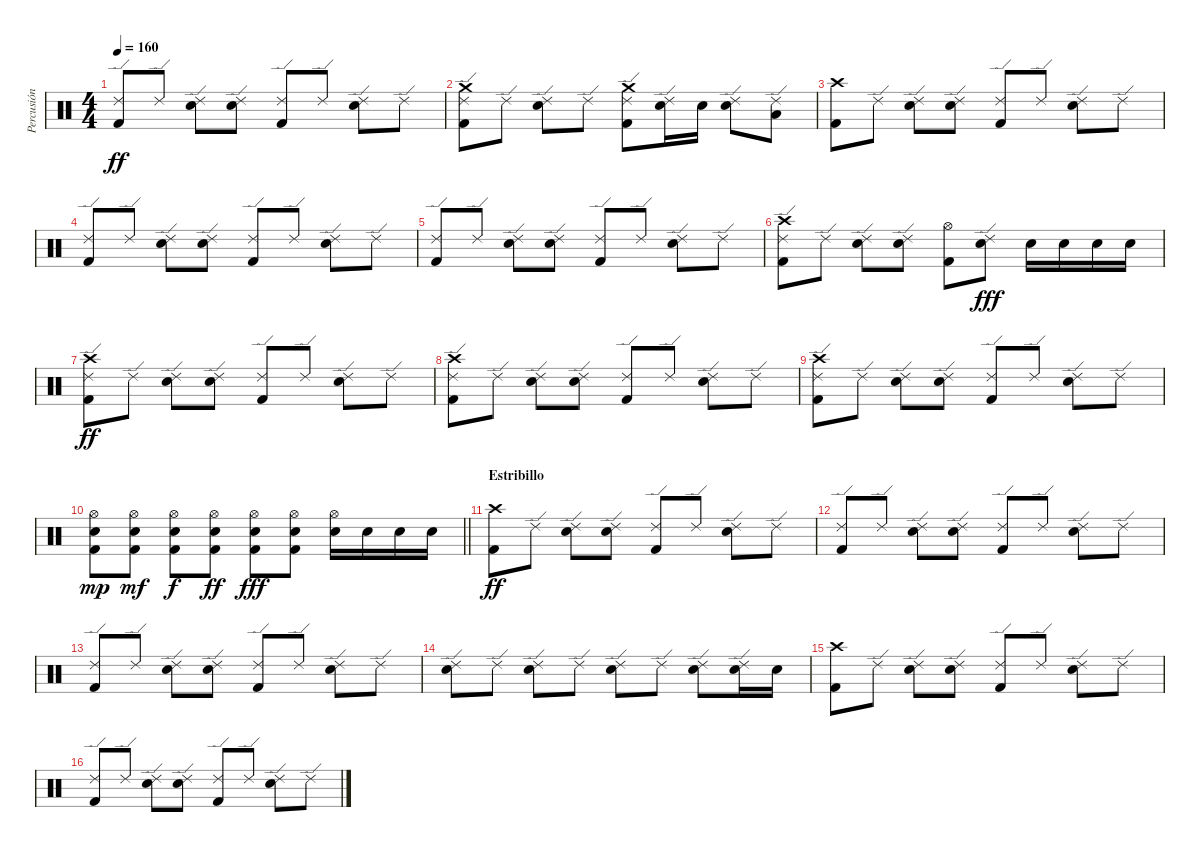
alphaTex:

\track ("Percusión" "Percusión") {instrument percussion}
\staff {score}
\articulation defaults
\ts (4 4)
\tempo 160
\clef neutral
\ks c
("Ride (edge) 2" "Kick (hit) 2").8{dy ff} "Ride (edge) 2".8 ("Ride (edge) 2" "Electric Snare (hit)").8 ("Ride (edge) 2" "Electric Snare (hit)").8 ("Ride (edge) 2" "Kick (hit) 2").8 "Ride (edge) 2".8 ("Ride (edge) 2" "Electric Snare (hit)").8 "Ride (edge) 2".8 |
("Ride (edge) 2" "Kick (hit) 2" "Crash medium (hit)").8 "Ride (edge) 2".8 ("Ride (edge) 2" "Electric Snare (hit)").8 "Ride (edge) 2".8 ("Ride (edge) 2" "Kick (hit) 2" "Crash medium (hit)").8 ("Ride (edge) 2" "Electric Snare (hit)").16 "Electric Snare (hit)".16 ("Ride (edge) 2" "Electric Snare (hit)").8 ("Ride (edge) 2" "Low Tom (hit)").8 |
("Crash high (hit)" "Kick (hit) 2").8 "Ride (edge) 2".8 ("Ride (edge) 2" "Electric Snare (hit)").8 ("Ride (edge) 2" "Electric Snare (hit)").8 ("Ride (edge) 2" "Kick (hit) 2").8 "Ride (edge) 2".8 ("Ride (edge) 2" "Electric Snare (hit)").8 "Ride (edge) 2".8 |
("Ride (edge) 2" "Kick (hit) 2").8 "Ride (edge) 2".8 ("Ride (edge) 2" "Electric Snare (hit)").8 ("Ride (edge) 2" "Electric Snare (hit)").8 ("Ride (edge) 2" "Kick (hit) 2").8 "Ride (edge) 2".8 ("Ride (edge) 2" "Electric Snare (hit)").8 "Ride (edge) 2".8 |
("Ride (edge) 2" "Kick (hit) 2").8 "Ride (edge) 2".8 ("Ride (edge) 2" "Electric Snare (hit)").8 ("Ride (edge) 2" "Electric Snare (hit)").8 ("Ride (edge) 2" "Kick (hit) 2").8 "Ride (edge) 2".8 ("Ride (edge) 2" "Electric Snare (hit)").8 "Ride (edge) 2".8 |
("Ride (edge) 2" "Kick (hit) 2" "Crash high (hit)").8 "Ride (edge) 2".8 ("Ride (edge) 2" "Electric Snare (hit)").8 ("Ride (edge) 2" "Electric Snare (hit)").8 ("Hi-Hat (open)" "Kick (hit) 2").8 ("Ride (edge) 2" "Electric Snare (hit)").8{dy fff} "Electric Snare (hit)".16 "Electric Snare (hit)".16 "Electric Snare (hit)".16 "Electric Snare (hit)".16 |
("Ride (edge) 2" "Kick (hit) 2" "Crash high (hit)").8{dy ff} "Ride (edge) 2".8 ("Ride (edge) 2" "Electric Snare (hit)").8 ("Ride (edge) 2" "Electric Snare (hit)").8 ("Ride (edge) 2" "Kick (hit) 2").8 "Ride (edge) 2".8 ("Ride (edge) 2" "Electric Snare (hit)").8 "Ride (edge) 2".8 |
("Ride (edge) 2" "Kick (hit) 2" "Crash high (hit)").8 "Ride (edge) 2".8 ("Ride (edge) 2" "Electric Snare (hit)").8 ("Ride (edge) 2" "Electric Snare (hit)").8 ("Ride (edge) 2" "Kick (hit) 2").8 "Ride (edge) 2".8 ("Ride (edge) 2" "Electric Snare (hit)").8 "Ride (edge) 2".8 |
("Ride (edge) 2" "Kick (hit) 2" "Crash high (hit)").8 "Ride (edge) 2".8 ("Ride (edge) 2" "Electric Snare (hit)").8 ("Ride (edge) 2" "Electric Snare (hit)").8 ("Ride (edge) 2" "Kick (hit) 2").8 "Ride (edge) 2".8 ("Ride (edge) 2" "Electric Snare (hit)").8 "Ride (edge) 2".8 |
\barLineRight lightlight
("Electric Snare (hit)" "Hi-Hat (open)" "Kick (hit) 2").8{dy mp} ("Electric Snare (hit)" "Hi-Hat (open)" "Kick (hit) 2").8{dy mf} ("Electric Snare (hit)" "Hi-Hat (open)" "Kick (hit) 2").8{dy f} ("Electric Snare (hit)" "Hi-Hat (open)" "Kick (hit) 2").8{dy ff} ("Electric Snare (hit)" "Hi-Hat (open)" "Kick (hit) 2").8{dy fff} ("Electric Snare (hit)" "Hi-Hat (open)" "Kick (hit) 2").8 ("Hi-Hat (open)" "Electric Snare (hit)").16 "Electric Snare (hit)".16 "Electric Snare (hit)".16 "Electric Snare (hit)".16 |
\section ("" "Estribillo")
("Crash high (hit)" "Kick (hit) 2").8{dy ff} "Ride (edge) 2".8 ("Ride (edge) 2" "Electric Snare (hit)").8 ("Ride (edge) 2" "Electric Snare (hit)").8 ("Ride (edge) 2" "Kick (hit) 2").8 "Ride (edge) 2".8 ("Ride (edge) 2" "Electric Snare (hit)").8 "Ride (edge) 2".8 |
("Ride (edge) 2" "Kick (hit) 2").8 "Ride (edge) 2".8 ("Ride (edge) 2" "Electric Snare (hit)").8 ("Ride (edge) 2" "Electric Snare (hit)").8 ("Ride (edge) 2" "Kick (hit) 2").8 "Ride (edge) 2".8 ("Ride (edge) 2" "Electric Snare (hit)").8 "Ride (edge) 2".8 |
("Ride (edge) 2" "Kick (hit) 2").8 "Ride (edge) 2".8 ("Ride (edge) 2" "Electric Snare (hit)").8 ("Ride (edge) 2" "Electric Snare (hit)").8 ("Ride (edge) 2" "Kick (hit) 2").8 "Ride (edge) 2".8 ("Ride (edge) 2" "Electric Snare (hit)").8 "Ride (edge) 2".8 |
("Ride (edge) 2" "Electric Snare (hit)").8 "Ride (edge) 2".8 ("Ride (edge) 2" "Electric Snare (hit)").8 "Ride (edge) 2".8 ("Ride (edge) 2" "Electric Snare (hit)").8 "Ride (edge) 2".8 ("Ride (edge) 2" "Electric Snare (hit)").8 ("Ride (edge) 2" "Electric Snare (hit)").16 "Electric Snare (hit)".16 |
("Crash high (hit)" "Kick (hit) 2").8 "Ride (edge) 2".8 ("Ride (edge) 2" "Electric Snare (hit)").8 ("Ride (edge) 2" "Electric Snare (hit)").8 ("Ride (edge) 2" "Kick (hit) 2").8 "Ride (edge) 2".8 ("Ride (edge) 2" "Electric Snare (hit)").8 "Ride (edge) 2".8 |
("Ride (edge) 2" "Kick (hit) 2").8 "Ride (edge) 2".8 ("Ride (edge) 2" "Electric Snare (hit)").8 ("Ride (edge) 2" "Electric Snare (hit)").8 ("Ride (edge) 2" "Kick (hit) 2").8 "Ride (edge) 2".8 ("Ride (edge) 2" "Electric Snare (hit)").8 "Ride (edge) 2".8
